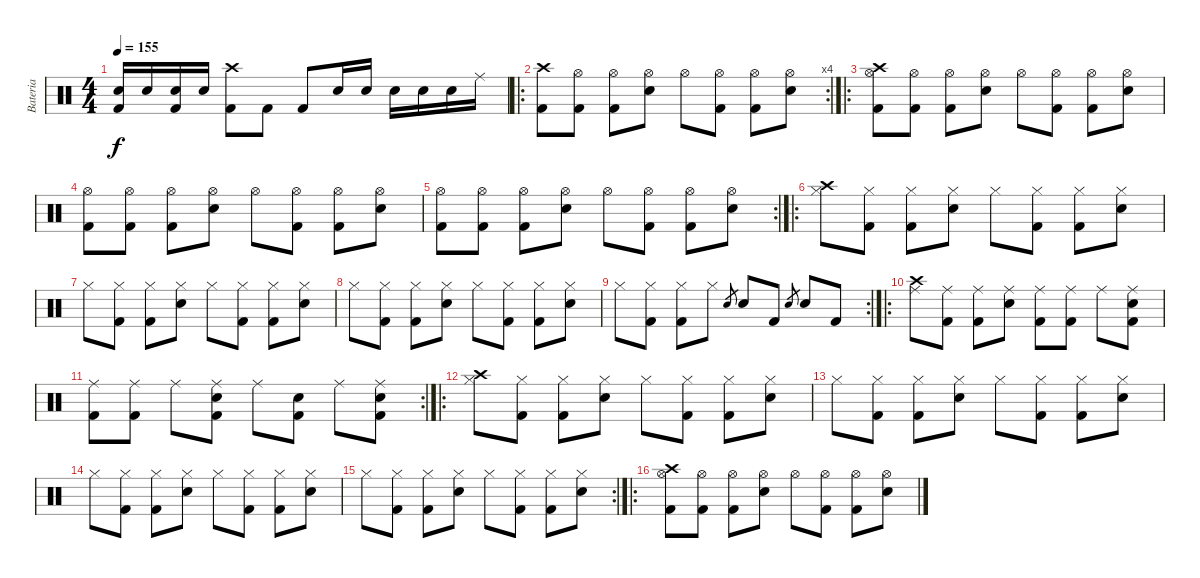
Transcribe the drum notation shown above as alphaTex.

\track ("Bateria" "Bateria") {instrument percussion}
\staff {score}
\articulation defaults
\ts (4 4)
\tempo 155
\clef neutral
\ks c
("Kick (hit) 2" "Snare (hit) 2").16{dy f} "Snare (hit) 2".16 ("Kick (hit) 2" "Snare (hit) 2").16 "Snare (hit) 2".16 ("Crash high (hit)" "Kick (hit) 2").8 "Kick (hit) 2".8 "Kick (hit) 2".8 "Snare (hit) 2".16 "Snare (hit) 2".16 "Snare (hit) 2".16 "Snare (hit) 2".16 "Snare (hit) 2".16 "Ride (middle)".16 |
\ro
\rc 4
("Crash high (hit)" "Kick (hit) 2").8 ("Hi-Hat (open)" "Kick (hit) 2").8 ("Hi-Hat (open)" "Kick (hit) 2").8 ("Snare (hit) 2" "Hi-Hat (open)").8 "Hi-Hat (open)".8 ("Hi-Hat (open)" "Kick (hit) 2").8 ("Hi-Hat (open)" "Kick (hit) 2").8 ("Snare (hit) 2" "Hi-Hat (open)").8 |
\ro
("Crash high (hit)" "Hi-Hat (open)" "Kick (hit) 2").8 ("Hi-Hat (open)" "Kick (hit) 2").8 ("Hi-Hat (open)" "Kick (hit) 2").8 ("Snare (hit) 2" "Hi-Hat (open)").8 "Hi-Hat (open)".8 ("Hi-Hat (open)" "Kick (hit) 2").8 ("Hi-Hat (open)" "Kick (hit) 2").8 ("Snare (hit) 2" "Hi-Hat (open)").8 |
("Hi-Hat (open)" "Kick (hit) 2").8 ("Hi-Hat (open)" "Kick (hit) 2").8 ("Hi-Hat (open)" "Kick (hit) 2").8 ("Snare (hit) 2" "Hi-Hat (open)").8 "Hi-Hat (open)".8 ("Hi-Hat (open)" "Kick (hit) 2").8 ("Hi-Hat (open)" "Kick (hit) 2").8 ("Snare (hit) 2" "Hi-Hat (open)").8 |
\rc 2
("Hi-Hat (open)" "Kick (hit) 2").8 ("Hi-Hat (open)" "Kick (hit) 2").8 ("Hi-Hat (open)" "Kick (hit) 2").8 ("Snare (hit) 2" "Hi-Hat (open)").8 "Hi-Hat (open)".8 ("Hi-Hat (open)" "Kick (hit) 2").8 ("Hi-Hat (open)" "Kick (hit) 2").8 ("Snare (hit) 2" "Hi-Hat (open)").8 |
\ro
("Crash high (hit)" "Hi-Hat (closed)").8 ("Hi-Hat (closed)" "Kick (hit) 2").8 ("Hi-Hat (closed)" "Kick (hit) 2").8 ("Snare (hit) 2" "Hi-Hat (closed)").8 "Hi-Hat (closed)".8 ("Hi-Hat (closed)" "Kick (hit) 2").8 ("Hi-Hat (closed)" "Kick (hit) 2").8 ("Snare (hit) 2" "Hi-Hat (closed)").8 |
"Hi-Hat (closed)".8 ("Hi-Hat (closed)" "Kick (hit) 2").8 ("Hi-Hat (closed)" "Kick (hit) 2").8 ("Snare (hit) 2" "Hi-Hat (closed)").8 "Hi-Hat (closed)".8 ("Hi-Hat (closed)" "Kick (hit) 2").8 ("Hi-Hat (closed)" "Kick (hit) 2").8 ("Snare (hit) 2" "Hi-Hat (closed)").8 |
"Hi-Hat (closed)".8 ("Hi-Hat (closed)" "Kick (hit) 2").8 ("Hi-Hat (closed)" "Kick (hit) 2").8 ("Snare (hit) 2" "Hi-Hat (closed)").8 "Hi-Hat (closed)".8 ("Hi-Hat (closed)" "Kick (hit) 2").8 ("Hi-Hat (closed)" "Kick (hit) 2").8 ("Snare (hit) 2" "Hi-Hat (closed)").8 |
\rc 2 "Hi-Hat (closed)".8
("Hi-Hat (closed)" "Kick (hit) 2").8 ("Hi-Hat (closed)" "Kick (hit) 2").8 "Hi-Hat (closed)".8 "Snare (hit) 2".8{gr} "Snare (hit) 2".8 "Kick (hit) 2".8 "Snare (hit) 2".8{gr} "Snare (hit) 2".8 "Kick (hit) 2".8 |
\ro
("Crash high (hit)" "Ride (middle)").8 ("Ride (middle)" "Kick (hit) 2").8 ("Ride (middle)" "Kick (hit) 2").8 ("Snare (hit) 2" "Ride (middle)").8 ("Ride (middle)" "Kick (hit) 2").8 ("Ride (middle)" "Kick (hit) 2").8 "Ride (middle)".8 ("Snare (hit) 2" "Ride (middle)" "Kick (hit) 2").8 |
\rc 2
("Ride (middle)" "Kick (hit) 2").8 ("Ride (middle)" "Kick (hit) 2").8 "Ride (middle)".8 ("Snare (hit) 2" "Ride (middle)" "Kick (hit) 2").8 "Ride (middle)".8 ("Snare (hit)" "Kick (hit) 2").8 "Ride (middle)".8 ("Snare (hit) 2" "Ride (middle)" "Kick (hit) 2").8 |
\ro
("Crash high (hit)" "Hi-Hat (closed)").8 ("Hi-Hat (closed)" "Kick (hit) 2").8 ("Hi-Hat (closed)" "Kick (hit) 2").8 ("Snare (hit) 2" "Hi-Hat (closed)").8 "Hi-Hat (closed)".8 ("Hi-Hat (closed)" "Kick (hit) 2").8 ("Hi-Hat (closed)" "Kick (hit) 2").8 ("Snare (hit) 2" "Hi-Hat (closed)").8 |
"Hi-Hat (closed)".8 ("Hi-Hat (closed)" "Kick (hit) 2").8 ("Hi-Hat (closed)" "Kick (hit) 2").8 ("Snare (hit) 2" "Hi-Hat (closed)").8 "Hi-Hat (closed)".8 ("Hi-Hat (closed)" "Kick (hit) 2").8 ("Hi-Hat (closed)" "Kick (hit) 2").8 ("Snare (hit) 2" "Hi-Hat (closed)").8 |
"Hi-Hat (closed)".8 ("Hi-Hat (closed)" "Kick (hit) 2").8 ("Hi-Hat (closed)" "Kick (hit) 2").8 ("Snare (hit) 2" "Hi-Hat (closed)").8 "Hi-Hat (closed)".8 ("Hi-Hat (closed)" "Kick (hit) 2").8 ("Hi-Hat (closed)" "Kick (hit) 2").8 ("Snare (hit) 2" "Hi-Hat (closed)").8 |
\rc 2 "Hi-Hat (closed)".8
("Hi-Hat (closed)" "Kick (hit) 2").8 ("Hi-Hat (closed)" "Kick (hit) 2").8 ("Snare (hit) 2" "Hi-Hat (closed)").8 "Hi-Hat (closed)".8 ("Hi-Hat (closed)" "Kick (hit) 2").8 ("Hi-Hat (closed)" "Kick (hit) 2").8 ("Snare (hit) 2" "Hi-Hat (closed)").8 |
\ro
("Crash high (hit)" "Hi-Hat (open)" "Kick (hit) 2").8 ("Hi-Hat (open)" "Kick (hit) 2").8 ("Hi-Hat (open)" "Kick (hit) 2").8 ("Snare (hit) 2" "Hi-Hat (open)").8 "Hi-Hat (open)".8 ("Hi-Hat (open)" "Kick (hit) 2").8 ("Hi-Hat (open)" "Kick (hit) 2").8 ("Snare (hit) 2" "Hi-Hat (open)").8
